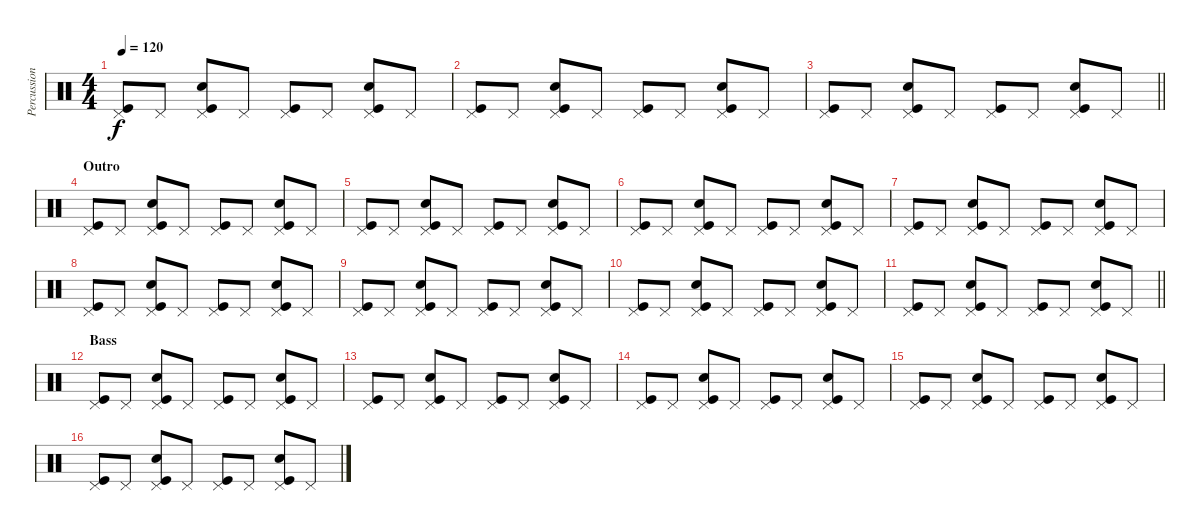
\track ("Percussion" "Percussion") {instrument percussion}
\staff {score}
\articulation defaults
\ts (4 4)
\tempo 120
\clef neutral
\ks c
("Pedal Hi-Hat (hit)" "Kick (hit)").8{dy f} "Pedal Hi-Hat (hit)".8 ("Pedal Hi-Hat (hit)" "Electric Snare (hit)" "Kick (hit)").8 "Pedal Hi-Hat (hit)".8 ("Pedal Hi-Hat (hit)" "Kick (hit)").8 "Pedal Hi-Hat (hit)".8 ("Pedal Hi-Hat (hit)" "Electric Snare (hit)" "Kick (hit)").8 "Pedal Hi-Hat (hit)".8 |
("Pedal Hi-Hat (hit)" "Kick (hit)").8 "Pedal Hi-Hat (hit)".8 ("Pedal Hi-Hat (hit)" "Electric Snare (hit)" "Kick (hit)").8 "Pedal Hi-Hat (hit)".8 ("Pedal Hi-Hat (hit)" "Kick (hit)").8 "Pedal Hi-Hat (hit)".8 ("Pedal Hi-Hat (hit)" "Electric Snare (hit)" "Kick (hit)").8 "Pedal Hi-Hat (hit)".8 |
\barLineRight lightlight
("Pedal Hi-Hat (hit)" "Kick (hit)").8 "Pedal Hi-Hat (hit)".8 ("Pedal Hi-Hat (hit)" "Electric Snare (hit)" "Kick (hit)").8 "Pedal Hi-Hat (hit)".8 ("Pedal Hi-Hat (hit)" "Kick (hit)").8 "Pedal Hi-Hat (hit)".8 ("Pedal Hi-Hat (hit)" "Electric Snare (hit)" "Kick (hit)").8 "Pedal Hi-Hat (hit)".8 |
\section ("" "Outro")
("Pedal Hi-Hat (hit)" "Kick (hit)").8 "Pedal Hi-Hat (hit)".8 ("Pedal Hi-Hat (hit)" "Electric Snare (hit)" "Kick (hit)").8 "Pedal Hi-Hat (hit)".8 ("Pedal Hi-Hat (hit)" "Kick (hit)").8 "Pedal Hi-Hat (hit)".8 ("Pedal Hi-Hat (hit)" "Electric Snare (hit)" "Kick (hit)").8 "Pedal Hi-Hat (hit)".8 |
("Pedal Hi-Hat (hit)" "Kick (hit)").8 "Pedal Hi-Hat (hit)".8 ("Pedal Hi-Hat (hit)" "Electric Snare (hit)" "Kick (hit)").8 "Pedal Hi-Hat (hit)".8 ("Pedal Hi-Hat (hit)" "Kick (hit)").8 "Pedal Hi-Hat (hit)".8 ("Pedal Hi-Hat (hit)" "Electric Snare (hit)" "Kick (hit)").8 "Pedal Hi-Hat (hit)".8 |
("Pedal Hi-Hat (hit)" "Kick (hit)").8 "Pedal Hi-Hat (hit)".8 ("Pedal Hi-Hat (hit)" "Electric Snare (hit)" "Kick (hit)").8 "Pedal Hi-Hat (hit)".8 ("Pedal Hi-Hat (hit)" "Kick (hit)").8 "Pedal Hi-Hat (hit)".8 ("Pedal Hi-Hat (hit)" "Electric Snare (hit)" "Kick (hit)").8 "Pedal Hi-Hat (hit)".8 |
("Pedal Hi-Hat (hit)" "Kick (hit)").8 "Pedal Hi-Hat (hit)".8 ("Pedal Hi-Hat (hit)" "Electric Snare (hit)" "Kick (hit)").8 "Pedal Hi-Hat (hit)".8 ("Pedal Hi-Hat (hit)" "Kick (hit)").8 "Pedal Hi-Hat (hit)".8 ("Pedal Hi-Hat (hit)" "Electric Snare (hit)" "Kick (hit)").8 "Pedal Hi-Hat (hit)".8 |
("Pedal Hi-Hat (hit)" "Kick (hit)").8 "Pedal Hi-Hat (hit)".8 ("Pedal Hi-Hat (hit)" "Electric Snare (hit)" "Kick (hit)").8 "Pedal Hi-Hat (hit)".8 ("Pedal Hi-Hat (hit)" "Kick (hit)").8 "Pedal Hi-Hat (hit)".8 ("Pedal Hi-Hat (hit)" "Electric Snare (hit)" "Kick (hit)").8 "Pedal Hi-Hat (hit)".8 |
("Pedal Hi-Hat (hit)" "Kick (hit)").8 "Pedal Hi-Hat (hit)".8 ("Pedal Hi-Hat (hit)" "Electric Snare (hit)" "Kick (hit)").8 "Pedal Hi-Hat (hit)".8 ("Pedal Hi-Hat (hit)" "Kick (hit)").8 "Pedal Hi-Hat (hit)".8 ("Pedal Hi-Hat (hit)" "Electric Snare (hit)" "Kick (hit)").8 "Pedal Hi-Hat (hit)".8 |
("Pedal Hi-Hat (hit)" "Kick (hit)").8 "Pedal Hi-Hat (hit)".8 ("Pedal Hi-Hat (hit)" "Electric Snare (hit)" "Kick (hit)").8 "Pedal Hi-Hat (hit)".8 ("Pedal Hi-Hat (hit)" "Kick (hit)").8 "Pedal Hi-Hat (hit)".8 ("Pedal Hi-Hat (hit)" "Electric Snare (hit)" "Kick (hit)").8 "Pedal Hi-Hat (hit)".8 |
\barLineRight lightlight
("Pedal Hi-Hat (hit)" "Kick (hit)").8 "Pedal Hi-Hat (hit)".8 ("Pedal Hi-Hat (hit)" "Electric Snare (hit)" "Kick (hit)").8 "Pedal Hi-Hat (hit)".8 ("Pedal Hi-Hat (hit)" "Kick (hit)").8 "Pedal Hi-Hat (hit)".8 ("Pedal Hi-Hat (hit)" "Electric Snare (hit)" "Kick (hit)").8 "Pedal Hi-Hat (hit)".8 |
\section ("" "Bass")
("Pedal Hi-Hat (hit)" "Kick (hit)").8 "Pedal Hi-Hat (hit)".8 ("Pedal Hi-Hat (hit)" "Electric Snare (hit)" "Kick (hit)").8 "Pedal Hi-Hat (hit)".8 ("Pedal Hi-Hat (hit)" "Kick (hit)").8 "Pedal Hi-Hat (hit)".8 ("Pedal Hi-Hat (hit)" "Electric Snare (hit)" "Kick (hit)").8 "Pedal Hi-Hat (hit)".8 |
("Pedal Hi-Hat (hit)" "Kick (hit)").8 "Pedal Hi-Hat (hit)".8 ("Pedal Hi-Hat (hit)" "Electric Snare (hit)" "Kick (hit)").8 "Pedal Hi-Hat (hit)".8 ("Pedal Hi-Hat (hit)" "Kick (hit)").8 "Pedal Hi-Hat (hit)".8 ("Pedal Hi-Hat (hit)" "Electric Snare (hit)" "Kick (hit)").8 "Pedal Hi-Hat (hit)".8 |
("Pedal Hi-Hat (hit)" "Kick (hit)").8 "Pedal Hi-Hat (hit)".8 ("Pedal Hi-Hat (hit)" "Electric Snare (hit)" "Kick (hit)").8 "Pedal Hi-Hat (hit)".8 ("Pedal Hi-Hat (hit)" "Kick (hit)").8 "Pedal Hi-Hat (hit)".8 ("Pedal Hi-Hat (hit)" "Electric Snare (hit)" "Kick (hit)").8 "Pedal Hi-Hat (hit)".8 |
("Pedal Hi-Hat (hit)" "Kick (hit)").8 "Pedal Hi-Hat (hit)".8 ("Pedal Hi-Hat (hit)" "Electric Snare (hit)" "Kick (hit)").8 "Pedal Hi-Hat (hit)".8 ("Pedal Hi-Hat (hit)" "Kick (hit)").8 "Pedal Hi-Hat (hit)".8 ("Pedal Hi-Hat (hit)" "Electric Snare (hit)" "Kick (hit)").8 "Pedal Hi-Hat (hit)".8 |
("Pedal Hi-Hat (hit)" "Kick (hit)").8 "Pedal Hi-Hat (hit)".8 ("Pedal Hi-Hat (hit)" "Electric Snare (hit)" "Kick (hit)").8 "Pedal Hi-Hat (hit)".8 ("Pedal Hi-Hat (hit)" "Kick (hit)").8 "Pedal Hi-Hat (hit)".8 ("Pedal Hi-Hat (hit)" "Electric Snare (hit)" "Kick (hit)").8 "Pedal Hi-Hat (hit)".8
